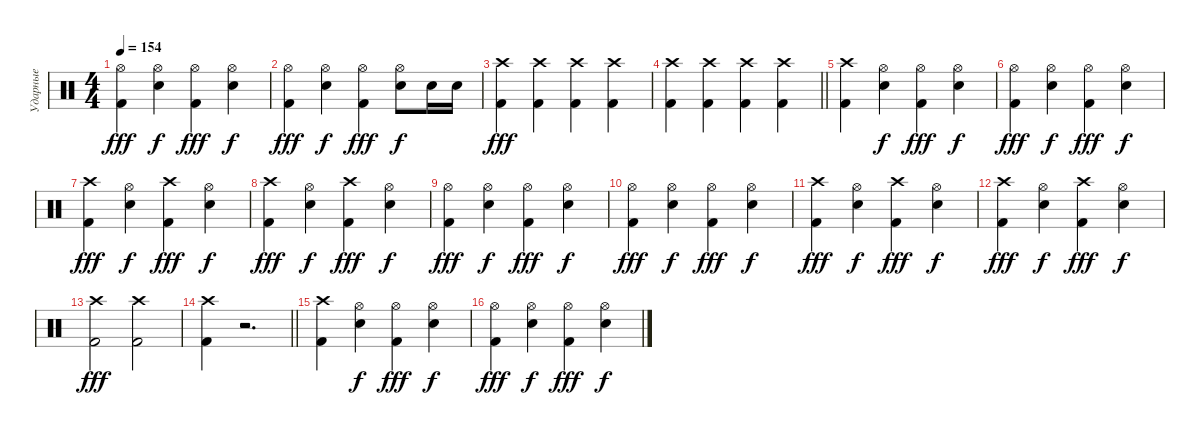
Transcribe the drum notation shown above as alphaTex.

\track ("Ударные" "Ударные") {instrument percussion}
\staff
\articulation defaults
\ts (4 4)
\tempo 154
\clef neutral
\ks c
("Kick (hit) 2" "Hi-Hat (open)").4{dy fff} ("Snare (hit) 2" "Hi-Hat (open)").4{dy f} ("Kick (hit) 2" "Hi-Hat (open)").4{dy fff} ("Snare (hit) 2" "Hi-Hat (open)").4{dy f} |
("Kick (hit) 2" "Hi-Hat (open)").4{dy fff} ("Snare (hit) 2" "Hi-Hat (open)").4{dy f} ("Kick (hit) 2" "Hi-Hat (open)").4{dy fff} ("Snare (hit) 2" "Hi-Hat (open)").8{dy f} "Snare (hit) 2".16 "Snare (hit) 2".16 |
("Kick (hit) 2" "Crash high (hit)").4{dy fff} ("Kick (hit) 2" "Crash high (hit)").4 ("Kick (hit) 2" "Crash high (hit)").4 ("Kick (hit) 2" "Crash high (hit)").4 |
\barLineRight lightlight
("Kick (hit) 2" "Crash high (hit)").4 ("Kick (hit) 2" "Crash high (hit)").4 ("Kick (hit) 2" "Crash high (hit)").4 ("Kick (hit) 2" "Crash high (hit)").4 |
("Kick (hit) 2" "Crash high (hit)").4 ("Snare (hit) 2" "Hi-Hat (open)").4{dy f} ("Kick (hit) 2" "Hi-Hat (open)").4{dy fff} ("Snare (hit) 2" "Hi-Hat (open)").4{dy f} |
("Kick (hit) 2" "Hi-Hat (open)").4{dy fff} ("Snare (hit) 2" "Hi-Hat (open)").4{dy f} ("Kick (hit) 2" "Hi-Hat (open)").4{dy fff} ("Snare (hit) 2" "Hi-Hat (open)").4{dy f} |
("Kick (hit) 2" "Crash high (hit)").4{dy fff} ("Snare (hit) 2" "Hi-Hat (open)").4{dy f} ("Kick (hit) 2" "Crash high (hit)").4{dy fff} ("Snare (hit) 2" "Hi-Hat (open)").4{dy f} |
("Kick (hit) 2" "Crash high (hit)").4{dy fff} ("Snare (hit) 2" "Hi-Hat (open)").4{dy f} ("Kick (hit) 2" "Crash high (hit)").4{dy fff} ("Snare (hit) 2" "Hi-Hat (open)").4{dy f} |
("Kick (hit) 2" "Hi-Hat (open)").4{dy fff} ("Snare (hit) 2" "Hi-Hat (open)").4{dy f} ("Kick (hit) 2" "Hi-Hat (open)").4{dy fff} ("Snare (hit) 2" "Hi-Hat (open)").4{dy f} |
("Kick (hit) 2" "Hi-Hat (open)").4{dy fff} ("Snare (hit) 2" "Hi-Hat (open)").4{dy f} ("Kick (hit) 2" "Hi-Hat (open)").4{dy fff} ("Snare (hit) 2" "Hi-Hat (open)").4{dy f} |
("Kick (hit) 2" "Crash high (hit)").4{dy fff} ("Snare (hit) 2" "Hi-Hat (open)").4{dy f} ("Kick (hit) 2" "Crash high (hit)").4{dy fff} ("Snare (hit) 2" "Hi-Hat (open)").4{dy f} |
("Kick (hit) 2" "Crash high (hit)").4{dy fff} ("Snare (hit) 2" "Hi-Hat (open)").4{dy f} ("Kick (hit) 2" "Crash high (hit)").4{dy fff} ("Snare (hit) 2" "Hi-Hat (open)").4{dy f} |
("Kick (hit) 2" "Crash high (hit)").2{dy fff} ("Kick (hit) 2" "Crash high (hit)").2 |
\barLineRight lightlight
("Kick (hit) 2" "Crash high (hit)").4 r.2{d} |
("Kick (hit) 2" "Crash high (hit)").4 ("Snare (hit) 2" "Hi-Hat (open)").4{dy f} ("Kick (hit) 2" "Hi-Hat (open)").4{dy fff} ("Snare (hit) 2" "Hi-Hat (open)").4{dy f} |
("Kick (hit) 2" "Hi-Hat (open)").4{dy fff} ("Snare (hit) 2" "Hi-Hat (open)").4{dy f} ("Kick (hit) 2" "Hi-Hat (open)").4{dy fff} ("Snare (hit) 2" "Hi-Hat (open)").4{dy f}
